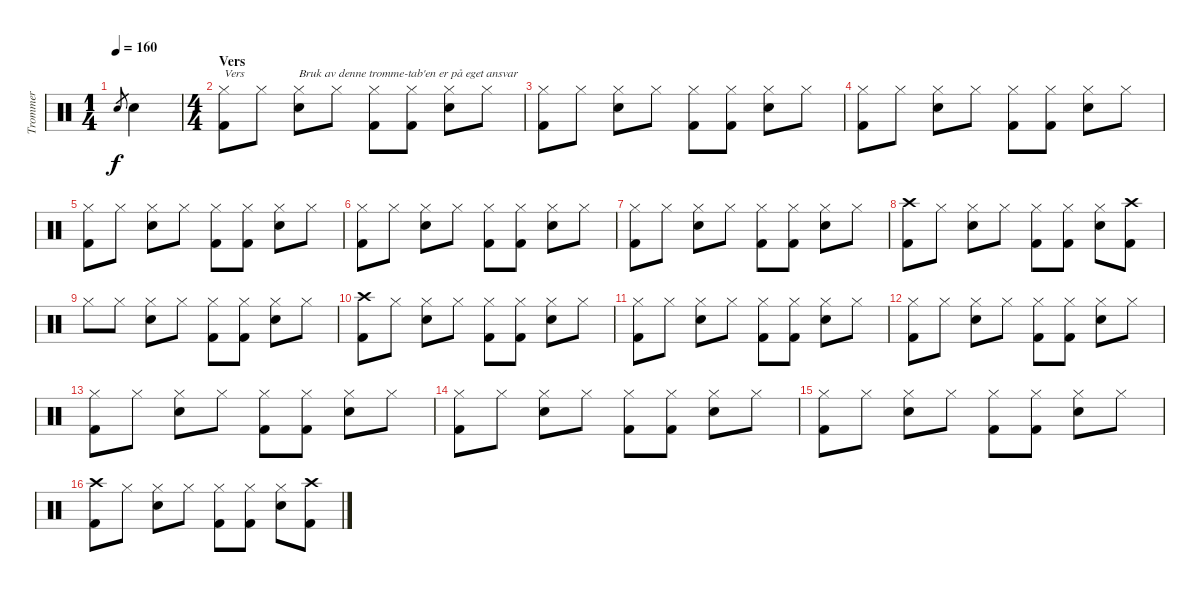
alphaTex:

\track ("Trommer" "Trommer") {instrument percussion}
\staff {score}
\articulation defaults
\ts (1 4)
\tempo 160
\clef neutral
\ks c "Electric Snare (hit)".8{gr dy f} "Electric Snare (hit)".4
|
\ts (4 4)
\section ("" "Vers")
("Hi-Hat (closed)" "Kick (hit) 2").8{txt "Vers"} "Hi-Hat (closed)".8 ("Hi-Hat (closed)" "Electric Snare (hit)").8{txt "Bruk av denne tromme-tab'en er på eget ansvar"} "Hi-Hat (closed)".8 ("Hi-Hat (closed)" "Kick (hit) 2").8 ("Hi-Hat (closed)" "Kick (hit) 2").8 ("Hi-Hat (closed)" "Electric Snare (hit)").8 "Hi-Hat (closed)".8 |
("Hi-Hat (closed)" "Kick (hit) 2").8 "Hi-Hat (closed)".8 ("Hi-Hat (closed)" "Electric Snare (hit)").8 "Hi-Hat (closed)".8 ("Hi-Hat (closed)" "Kick (hit) 2").8 ("Hi-Hat (closed)" "Kick (hit) 2").8 ("Hi-Hat (closed)" "Electric Snare (hit)").8 "Hi-Hat (closed)".8 |
("Hi-Hat (closed)" "Kick (hit) 2").8 "Hi-Hat (closed)".8 ("Hi-Hat (closed)" "Electric Snare (hit)").8 "Hi-Hat (closed)".8 ("Hi-Hat (closed)" "Kick (hit) 2").8 ("Hi-Hat (closed)" "Kick (hit) 2").8 ("Hi-Hat (closed)" "Electric Snare (hit)").8 "Hi-Hat (closed)".8 |
("Hi-Hat (closed)" "Kick (hit) 2").8 "Hi-Hat (closed)".8 ("Hi-Hat (closed)" "Electric Snare (hit)").8 "Hi-Hat (closed)".8 ("Hi-Hat (closed)" "Kick (hit) 2").8 ("Hi-Hat (closed)" "Kick (hit) 2").8 ("Hi-Hat (closed)" "Electric Snare (hit)").8 "Hi-Hat (closed)".8 |
("Hi-Hat (closed)" "Kick (hit) 2").8 "Hi-Hat (closed)".8 ("Hi-Hat (closed)" "Electric Snare (hit)").8 "Hi-Hat (closed)".8 ("Hi-Hat (closed)" "Kick (hit) 2").8 ("Hi-Hat (closed)" "Kick (hit) 2").8 ("Hi-Hat (closed)" "Electric Snare (hit)").8 "Hi-Hat (closed)".8 |
("Hi-Hat (closed)" "Kick (hit) 2").8 "Hi-Hat (closed)".8 ("Hi-Hat (closed)" "Electric Snare (hit)").8 "Hi-Hat (closed)".8 ("Hi-Hat (closed)" "Kick (hit) 2").8 ("Hi-Hat (closed)" "Kick (hit) 2").8 ("Hi-Hat (closed)" "Electric Snare (hit)").8 "Hi-Hat (closed)".8 |
("Crash high (hit)" "Kick (hit) 2").8 "Hi-Hat (closed)".8 ("Hi-Hat (closed)" "Electric Snare (hit)").8 "Hi-Hat (closed)".8 ("Hi-Hat (closed)" "Kick (hit) 2").8 ("Hi-Hat (closed)" "Kick (hit) 2").8 ("Hi-Hat (closed)" "Electric Snare (hit)").8 ("Crash high (hit)" "Kick (hit) 2").8 |
"Hi-Hat (closed)".8 "Hi-Hat (closed)".8 ("Hi-Hat (closed)" "Electric Snare (hit)").8 "Hi-Hat (closed)".8 ("Hi-Hat (closed)" "Kick (hit) 2").8 ("Hi-Hat (closed)" "Kick (hit) 2").8 ("Hi-Hat (closed)" "Electric Snare (hit)").8 "Hi-Hat (closed)".8 |
("Crash high (hit)" "Kick (hit) 2").8 "Hi-Hat (closed)".8 ("Hi-Hat (closed)" "Electric Snare (hit)").8 "Hi-Hat (closed)".8 ("Hi-Hat (closed)" "Kick (hit) 2").8 ("Hi-Hat (closed)" "Kick (hit) 2").8 ("Hi-Hat (closed)" "Electric Snare (hit)").8 "Hi-Hat (closed)".8 |
("Hi-Hat (closed)" "Kick (hit) 2").8 "Hi-Hat (closed)".8 ("Hi-Hat (closed)" "Electric Snare (hit)").8 "Hi-Hat (closed)".8 ("Hi-Hat (closed)" "Kick (hit) 2").8 ("Hi-Hat (closed)" "Kick (hit) 2").8 ("Hi-Hat (closed)" "Electric Snare (hit)").8 "Hi-Hat (closed)".8 |
("Hi-Hat (closed)" "Kick (hit) 2").8 "Hi-Hat (closed)".8 ("Hi-Hat (closed)" "Electric Snare (hit)").8 "Hi-Hat (closed)".8 ("Hi-Hat (closed)" "Kick (hit) 2").8 ("Hi-Hat (closed)" "Kick (hit) 2").8 ("Hi-Hat (closed)" "Electric Snare (hit)").8 "Hi-Hat (closed)".8 |
("Hi-Hat (closed)" "Kick (hit) 2").8 "Hi-Hat (closed)".8 ("Hi-Hat (closed)" "Electric Snare (hit)").8 "Hi-Hat (closed)".8 ("Hi-Hat (closed)" "Kick (hit) 2").8 ("Hi-Hat (closed)" "Kick (hit) 2").8 ("Hi-Hat (closed)" "Electric Snare (hit)").8 "Hi-Hat (closed)".8 |
("Hi-Hat (closed)" "Kick (hit) 2").8 "Hi-Hat (closed)".8 ("Hi-Hat (closed)" "Electric Snare (hit)").8 "Hi-Hat (closed)".8 ("Hi-Hat (closed)" "Kick (hit) 2").8 ("Hi-Hat (closed)" "Kick (hit) 2").8 ("Hi-Hat (closed)" "Electric Snare (hit)").8 "Hi-Hat (closed)".8 |
("Hi-Hat (closed)" "Kick (hit) 2").8 "Hi-Hat (closed)".8 ("Hi-Hat (closed)" "Electric Snare (hit)").8 "Hi-Hat (closed)".8 ("Hi-Hat (closed)" "Kick (hit) 2").8 ("Hi-Hat (closed)" "Kick (hit) 2").8 ("Hi-Hat (closed)" "Electric Snare (hit)").8 "Hi-Hat (closed)".8 |
("Crash high (hit)" "Kick (hit) 2").8 "Hi-Hat (closed)".8 ("Hi-Hat (closed)" "Electric Snare (hit)").8 "Hi-Hat (closed)".8 ("Hi-Hat (closed)" "Kick (hit) 2").8 ("Hi-Hat (closed)" "Kick (hit) 2").8 ("Hi-Hat (closed)" "Electric Snare (hit)").8 ("Crash high (hit)" "Kick (hit) 2").8
